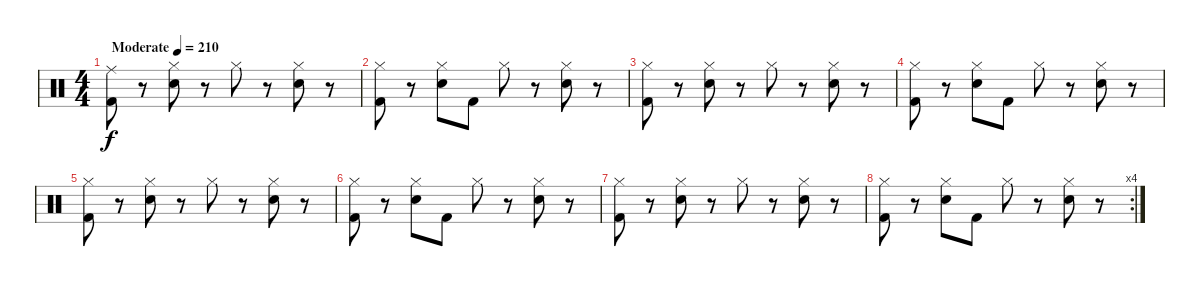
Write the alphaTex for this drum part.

\track (" " " ") {instrument percussion}
\staff {score}
\articulation defaults
\ts (4 4)
\tempo (210 "Moderate")
\clef neutral
\ks c
("Ride (middle)" "Kick (hit) 2").8{dy f} r.8 ("Hi-Hat (closed)" "Electric Snare (hit)").8 r.8 "Hi-Hat (closed)".8 r.8 ("Hi-Hat (closed)" "Electric Snare (hit)").8 r.8 |
("Hi-Hat (closed)" "Kick (hit) 2").8 r.8 ("Hi-Hat (closed)" "Electric Snare (hit)").8 "Kick (hit) 2".8 "Hi-Hat (closed)".8 r.8 ("Hi-Hat (closed)" "Electric Snare (hit)").8 r.8 |
("Hi-Hat (closed)" "Kick (hit) 2").8 r.8 ("Hi-Hat (closed)" "Electric Snare (hit)").8 r.8 "Hi-Hat (closed)".8 r.8 ("Hi-Hat (closed)" "Electric Snare (hit)").8 r.8 |
("Hi-Hat (closed)" "Kick (hit) 2").8 r.8 ("Hi-Hat (closed)" "Electric Snare (hit)").8 "Kick (hit) 2".8 "Hi-Hat (closed)".8 r.8 ("Hi-Hat (closed)" "Electric Snare (hit)").8 r.8 |
("Hi-Hat (closed)" "Kick (hit) 2").8 r.8 ("Hi-Hat (closed)" "Electric Snare (hit)").8 r.8 "Hi-Hat (closed)".8 r.8 ("Hi-Hat (closed)" "Electric Snare (hit)").8 r.8 |
("Hi-Hat (closed)" "Kick (hit) 2").8 r.8 ("Hi-Hat (closed)" "Electric Snare (hit)").8 "Kick (hit) 2".8 "Hi-Hat (closed)".8 r.8 ("Hi-Hat (closed)" "Electric Snare (hit)").8 r.8 |
("Hi-Hat (closed)" "Kick (hit) 2").8 r.8 ("Hi-Hat (closed)" "Electric Snare (hit)").8 r.8 "Hi-Hat (closed)".8 r.8 ("Hi-Hat (closed)" "Electric Snare (hit)").8 r.8 |
\rc 4
("Hi-Hat (closed)" "Kick (hit) 2").8 r.8 ("Hi-Hat (closed)" "Electric Snare (hit)").8 "Kick (hit) 2".8 "Hi-Hat (closed)".8 r.8 ("Hi-Hat (closed)" "Electric Snare (hit)").8 r.8
